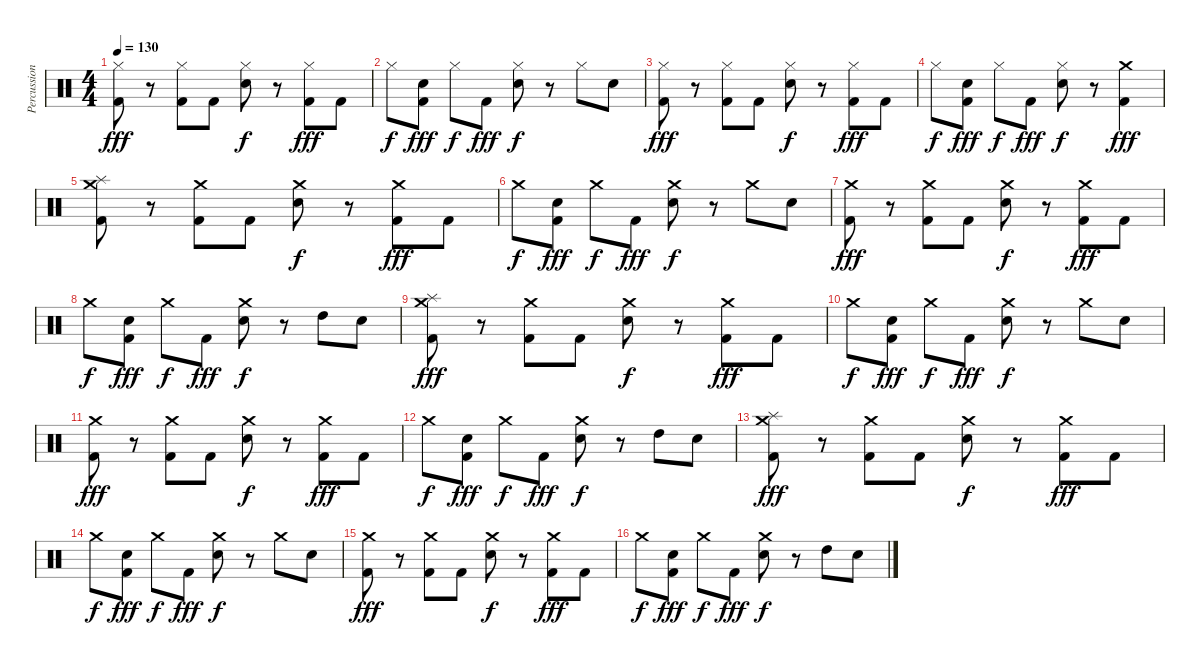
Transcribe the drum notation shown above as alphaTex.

\track ("Percussion" "Percussion") {instrument percussion}
\staff {score}
\articulation defaults
\ts (4 4)
\tempo 130
\clef neutral
\ks c
("Hi-Hat (closed)" "Kick (hit) 2").8{dy fff} r.8 ("Hi-Hat (closed)" "Kick (hit) 2").8 "Kick (hit) 2".8 ("Hi-Hat (closed)" "Electric Snare (hit)").8{dy f} r.8 ("Hi-Hat (closed)" "Kick (hit) 2").8{dy fff} "Kick (hit) 2".8 |
"Hi-Hat (closed)".8{dy f} ("Electric Snare (hit)" "Kick (hit) 2").8{dy fff} "Hi-Hat (closed)".8{dy f} "Kick (hit) 2".8{dy fff} ("Hi-Hat (closed)" "Electric Snare (hit)").8{dy f} r.8 "Hi-Hat (closed)".8 "Electric Snare (hit)".8 |
("Hi-Hat (closed)" "Kick (hit) 2").8{dy fff} r.8 ("Hi-Hat (closed)" "Kick (hit) 2").8 "Kick (hit) 2".8 ("Hi-Hat (closed)" "Electric Snare (hit)").8{dy f} r.8 ("Hi-Hat (closed)" "Kick (hit) 2").8{dy fff} "Kick (hit) 2".8 |
"Hi-Hat (closed)".8{dy f} ("Electric Snare (hit)" "Kick (hit) 2").8{dy fff} "Hi-Hat (closed)".8{dy f} "Kick (hit) 2".8{dy fff} ("Hi-Hat (closed)" "Electric Snare (hit)").8{dy f} r.8 ("Crash medium (hit)" "Kick (hit) 2").4{dy fff} |
("Crash medium (hit)" "Splash (hit)" "Kick (hit) 2").8 r.8 ("Crash medium (hit)" "Kick (hit) 2").8 "Kick (hit) 2".8 ("Crash medium (hit)" "Electric Snare (hit)").8{dy f} r.8 ("Crash medium (hit)" "Kick (hit) 2").8{dy fff} "Kick (hit) 2".8 |
"Crash medium (hit)".8{dy f} ("Electric Snare (hit)" "Kick (hit) 2").8{dy fff} "Crash medium (hit)".8{dy f} "Kick (hit) 2".8{dy fff} ("Crash medium (hit)" "Electric Snare (hit)").8{dy f} r.8 "Crash medium (hit)".8 "Electric Snare (hit)".8 |
("Crash medium (hit)" "Kick (hit) 2").8{dy fff} r.8 ("Crash medium (hit)" "Kick (hit) 2").8 "Kick (hit) 2".8 ("Crash medium (hit)" "Electric Snare (hit)").8{dy f} r.8 ("Crash medium (hit)" "Kick (hit) 2").8{dy fff} "Kick (hit) 2".8 |
"Crash medium (hit)".8{dy f} ("Electric Snare (hit)" "Kick (hit) 2").8{dy fff} "Crash medium (hit)".8{dy f} "Kick (hit) 2".8{dy fff} ("Crash medium (hit)" "Electric Snare (hit)").8{dy f} r.8 "High Tom (hit)".8 "Electric Snare (hit)".8 |
("Crash medium (hit)" "Splash (hit)" "Kick (hit) 2").8{dy fff} r.8 ("Crash medium (hit)" "Kick (hit) 2").8 "Kick (hit) 2".8 ("Crash medium (hit)" "Electric Snare (hit)").8{dy f} r.8 ("Crash medium (hit)" "Kick (hit) 2").8{dy fff} "Kick (hit) 2".8 |
"Crash medium (hit)".8{dy f} ("Electric Snare (hit)" "Kick (hit) 2").8{dy fff} "Crash medium (hit)".8{dy f} "Kick (hit) 2".8{dy fff} ("Crash medium (hit)" "Electric Snare (hit)").8{dy f} r.8 "Crash medium (hit)".8 "Electric Snare (hit)".8 |
("Crash medium (hit)" "Kick (hit) 2").8{dy fff} r.8 ("Crash medium (hit)" "Kick (hit) 2").8 "Kick (hit) 2".8 ("Crash medium (hit)" "Electric Snare (hit)").8{dy f} r.8 ("Crash medium (hit)" "Kick (hit) 2").8{dy fff} "Kick (hit) 2".8 |
"Crash medium (hit)".8{dy f} ("Electric Snare (hit)" "Kick (hit) 2").8{dy fff} "Crash medium (hit)".8{dy f} "Kick (hit) 2".8{dy fff} ("Crash medium (hit)" "Electric Snare (hit)").8{dy f} r.8 "High Tom (hit)".8 "Electric Snare (hit)".8 |
("Crash medium (hit)" "Splash (hit)" "Kick (hit) 2").8{dy fff} r.8 ("Crash medium (hit)" "Kick (hit) 2").8 "Kick (hit) 2".8 ("Crash medium (hit)" "Electric Snare (hit)").8{dy f} r.8 ("Crash medium (hit)" "Kick (hit) 2").8{dy fff} "Kick (hit) 2".8 |
"Crash medium (hit)".8{dy f} ("Electric Snare (hit)" "Kick (hit) 2").8{dy fff} "Crash medium (hit)".8{dy f} "Kick (hit) 2".8{dy fff} ("Crash medium (hit)" "Electric Snare (hit)").8{dy f} r.8 "Crash medium (hit)".8 "Electric Snare (hit)".8 |
("Crash medium (hit)" "Kick (hit) 2").8{dy fff} r.8 ("Crash medium (hit)" "Kick (hit) 2").8 "Kick (hit) 2".8 ("Crash medium (hit)" "Electric Snare (hit)").8{dy f} r.8 ("Crash medium (hit)" "Kick (hit) 2").8{dy fff} "Kick (hit) 2".8 |
"Crash medium (hit)".8{dy f} ("Electric Snare (hit)" "Kick (hit) 2").8{dy fff} "Crash medium (hit)".8{dy f} "Kick (hit) 2".8{dy fff} ("Crash medium (hit)" "Electric Snare (hit)").8{dy f} r.8 "High Tom (hit)".8 "Electric Snare (hit)".8
